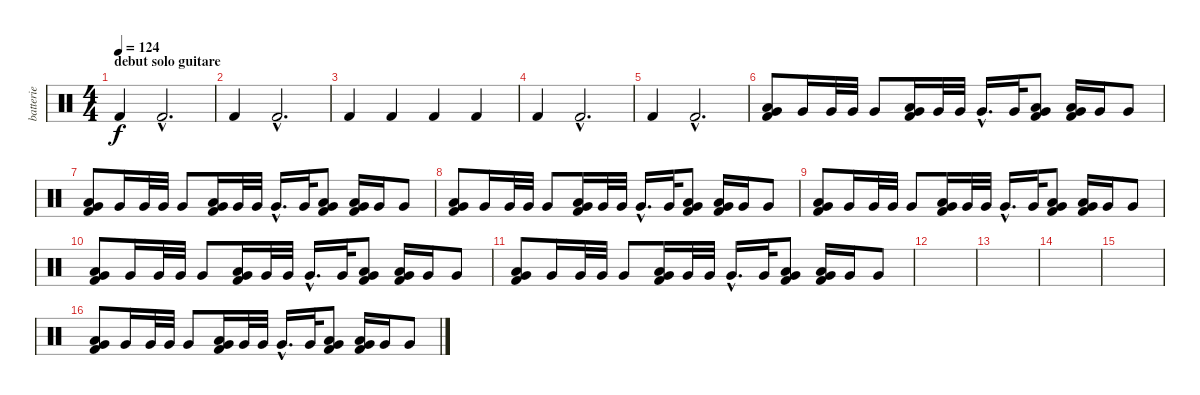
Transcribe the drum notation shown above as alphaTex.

\track ("batterie" "batterie") {instrument percussion}
\staff {score}
\articulation defaults
\ts (4 4)
\section ("" "debut solo guitare")
\tempo 124
\clef neutral
\ks c "Kick (hit) 2".4{dy f} "Kick (hit) 2"{hac}.2{d}
|
"Kick (hit) 2".4 "Kick (hit) 2"{hac}.2{d} |
"Kick (hit) 2".4 "Kick (hit) 2".4 "Kick (hit) 2".4 "Kick (hit) 2".4 |
"Kick (hit) 2".4 "Kick (hit) 2"{hac}.2{d} |
"Kick (hit) 2".4 "Kick (hit) 2"{hac}.2{d} |
("Low Floor Tom (hit)" "Very Low Tom (hit)" "Kick (hit) 2").8 "Very Low Tom (hit)".16 "Very Low Tom (hit)".32 "Very Low Tom (hit)".32 "Very Low Tom (hit)".8 ("Low Floor Tom (hit)" "Very Low Tom (hit)" "Kick (hit) 2").16 "Very Low Tom (hit)".32 "Very Low Tom (hit)".32 "Very Low Tom (hit)"{hac}.16{d} "Very Low Tom (hit)".32 ("Low Floor Tom (hit)" "Very Low Tom (hit)" "Kick (hit) 2").8 ("Low Floor Tom (hit)" "Very Low Tom (hit)" "Kick (hit) 2").16 "Very Low Tom (hit)".16 "Very Low Tom (hit)".8 |
("Low Floor Tom (hit)" "Very Low Tom (hit)" "Kick (hit) 2").8 "Very Low Tom (hit)".16 "Very Low Tom (hit)".32 "Very Low Tom (hit)".32 "Very Low Tom (hit)".8 ("Low Floor Tom (hit)" "Very Low Tom (hit)" "Kick (hit) 2").16 "Very Low Tom (hit)".32 "Very Low Tom (hit)".32 "Very Low Tom (hit)"{hac}.16{d} "Very Low Tom (hit)".32 ("Low Floor Tom (hit)" "Very Low Tom (hit)" "Kick (hit) 2").8 ("Low Floor Tom (hit)" "Very Low Tom (hit)" "Kick (hit) 2").16 "Very Low Tom (hit)".16 "Very Low Tom (hit)".8 |
("Low Floor Tom (hit)" "Very Low Tom (hit)" "Kick (hit) 2").8 "Very Low Tom (hit)".16 "Very Low Tom (hit)".32 "Very Low Tom (hit)".32 "Very Low Tom (hit)".8 ("Low Floor Tom (hit)" "Very Low Tom (hit)" "Kick (hit) 2").16 "Very Low Tom (hit)".32 "Very Low Tom (hit)".32 "Very Low Tom (hit)"{hac}.16{d} "Very Low Tom (hit)".32 ("Low Floor Tom (hit)" "Very Low Tom (hit)" "Kick (hit) 2").8 ("Low Floor Tom (hit)" "Very Low Tom (hit)" "Kick (hit) 2").16 "Very Low Tom (hit)".16 "Very Low Tom (hit)".8 |
("Low Floor Tom (hit)" "Very Low Tom (hit)" "Kick (hit) 2").8 "Very Low Tom (hit)".16 "Very Low Tom (hit)".32 "Very Low Tom (hit)".32 "Very Low Tom (hit)".8 ("Low Floor Tom (hit)" "Very Low Tom (hit)" "Kick (hit) 2").16 "Very Low Tom (hit)".32 "Very Low Tom (hit)".32 "Very Low Tom (hit)"{hac}.16{d} "Very Low Tom (hit)".32 ("Low Floor Tom (hit)" "Very Low Tom (hit)" "Kick (hit) 2").8 ("Low Floor Tom (hit)" "Very Low Tom (hit)" "Kick (hit) 2").16 "Very Low Tom (hit)".16 "Very Low Tom (hit)".8 |
("Low Floor Tom (hit)" "Very Low Tom (hit)" "Kick (hit) 2").8 "Very Low Tom (hit)".16 "Very Low Tom (hit)".32 "Very Low Tom (hit)".32 "Very Low Tom (hit)".8 ("Low Floor Tom (hit)" "Very Low Tom (hit)" "Kick (hit) 2").16 "Very Low Tom (hit)".32 "Very Low Tom (hit)".32 "Very Low Tom (hit)"{hac}.16{d} "Very Low Tom (hit)".32 ("Low Floor Tom (hit)" "Very Low Tom (hit)" "Kick (hit) 2").8 ("Low Floor Tom (hit)" "Very Low Tom (hit)" "Kick (hit) 2").16 "Very Low Tom (hit)".16 "Very Low Tom (hit)".8 |
("Low Floor Tom (hit)" "Very Low Tom (hit)" "Kick (hit) 2").8 "Very Low Tom (hit)".16 "Very Low Tom (hit)".32 "Very Low Tom (hit)".32 "Very Low Tom (hit)".8 ("Low Floor Tom (hit)" "Very Low Tom (hit)" "Kick (hit) 2").16 "Very Low Tom (hit)".32 "Very Low Tom (hit)".32 "Very Low Tom (hit)"{hac}.16{d} "Very Low Tom (hit)".32 ("Low Floor Tom (hit)" "Very Low Tom (hit)" "Kick (hit) 2").8 ("Low Floor Tom (hit)" "Very Low Tom (hit)" "Kick (hit) 2").16 "Very Low Tom (hit)".16 "Very Low Tom (hit)".8 |
|
|
|
|
("Low Floor Tom (hit)" "Very Low Tom (hit)" "Kick (hit) 2").8 "Very Low Tom (hit)".16 "Very Low Tom (hit)".32 "Very Low Tom (hit)".32 "Very Low Tom (hit)".8 ("Low Floor Tom (hit)" "Very Low Tom (hit)" "Kick (hit) 2").16 "Very Low Tom (hit)".32 "Very Low Tom (hit)".32 "Very Low Tom (hit)"{hac}.16{d} "Very Low Tom (hit)".32 ("Low Floor Tom (hit)" "Very Low Tom (hit)" "Kick (hit) 2").8 ("Low Floor Tom (hit)" "Very Low Tom (hit)" "Kick (hit) 2").16 "Very Low Tom (hit)".16 "Very Low Tom (hit)".8
